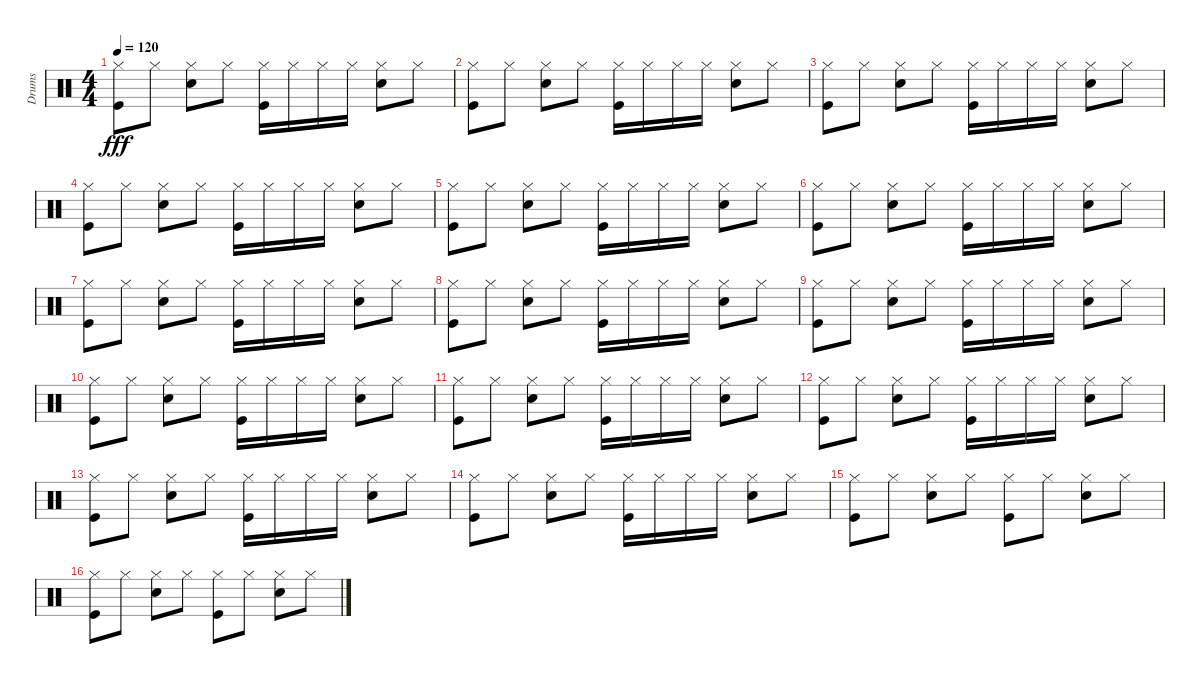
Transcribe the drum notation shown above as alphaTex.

\track ("Drums" "Drums") {instrument percussion}
\staff {score}
\articulation defaults
\ts (4 4)
\tempo 120
\clef neutral
\ks c
("Kick (hit)" "Hi-Hat (closed)").8{dy fff} "Hi-Hat (closed)".8 ("Snare (hit) 2" "Hi-Hat (closed)").8 "Hi-Hat (closed)".8 ("Kick (hit)" "Hi-Hat (closed)").16 "Hi-Hat (closed)".16 "Hi-Hat (closed)".16 "Hi-Hat (closed)".16 ("Snare (hit) 2" "Hi-Hat (closed)").8 "Hi-Hat (closed)".8 |
("Kick (hit)" "Hi-Hat (closed)").8 "Hi-Hat (closed)".8 ("Snare (hit) 2" "Hi-Hat (closed)").8 "Hi-Hat (closed)".8 ("Kick (hit)" "Hi-Hat (closed)").16 "Hi-Hat (closed)".16 "Hi-Hat (closed)".16 "Hi-Hat (closed)".16 ("Snare (hit) 2" "Hi-Hat (closed)").8 "Hi-Hat (closed)".8 |
("Kick (hit)" "Hi-Hat (closed)").8 "Hi-Hat (closed)".8 ("Snare (hit) 2" "Hi-Hat (closed)").8 "Hi-Hat (closed)".8 ("Kick (hit)" "Hi-Hat (closed)").16 "Hi-Hat (closed)".16 "Hi-Hat (closed)".16 "Hi-Hat (closed)".16 ("Snare (hit) 2" "Hi-Hat (closed)").8 "Hi-Hat (closed)".8 |
("Kick (hit)" "Hi-Hat (closed)").8 "Hi-Hat (closed)".8 ("Snare (hit) 2" "Hi-Hat (closed)").8 "Hi-Hat (closed)".8 ("Kick (hit)" "Hi-Hat (closed)").16 "Hi-Hat (closed)".16 "Hi-Hat (closed)".16 "Hi-Hat (closed)".16 ("Snare (hit) 2" "Hi-Hat (closed)").8 "Hi-Hat (closed)".8 |
("Kick (hit)" "Hi-Hat (closed)").8 "Hi-Hat (closed)".8 ("Snare (hit) 2" "Hi-Hat (closed)").8 "Hi-Hat (closed)".8 ("Kick (hit)" "Hi-Hat (closed)").16 "Hi-Hat (closed)".16 "Hi-Hat (closed)".16 "Hi-Hat (closed)".16 ("Snare (hit) 2" "Hi-Hat (closed)").8 "Hi-Hat (closed)".8 |
("Kick (hit)" "Hi-Hat (closed)").8 "Hi-Hat (closed)".8 ("Snare (hit) 2" "Hi-Hat (closed)").8 "Hi-Hat (closed)".8 ("Kick (hit)" "Hi-Hat (closed)").16 "Hi-Hat (closed)".16 "Hi-Hat (closed)".16 "Hi-Hat (closed)".16 ("Snare (hit) 2" "Hi-Hat (closed)").8 "Hi-Hat (closed)".8 |
("Kick (hit)" "Hi-Hat (closed)").8 "Hi-Hat (closed)".8 ("Snare (hit) 2" "Hi-Hat (closed)").8 "Hi-Hat (closed)".8 ("Kick (hit)" "Hi-Hat (closed)").16 "Hi-Hat (closed)".16 "Hi-Hat (closed)".16 "Hi-Hat (closed)".16 ("Snare (hit) 2" "Hi-Hat (closed)").8 "Hi-Hat (closed)".8 |
("Kick (hit)" "Hi-Hat (closed)").8 "Hi-Hat (closed)".8 ("Snare (hit) 2" "Hi-Hat (closed)").8 "Hi-Hat (closed)".8 ("Kick (hit)" "Hi-Hat (closed)").16 "Hi-Hat (closed)".16 "Hi-Hat (closed)".16 "Hi-Hat (closed)".16 ("Snare (hit) 2" "Hi-Hat (closed)").8 "Hi-Hat (closed)".8 |
("Kick (hit)" "Hi-Hat (closed)").8 "Hi-Hat (closed)".8 ("Snare (hit) 2" "Hi-Hat (closed)").8 "Hi-Hat (closed)".8 ("Kick (hit)" "Hi-Hat (closed)").16 "Hi-Hat (closed)".16 "Hi-Hat (closed)".16 "Hi-Hat (closed)".16 ("Snare (hit) 2" "Hi-Hat (closed)").8 "Hi-Hat (closed)".8 |
("Kick (hit)" "Hi-Hat (closed)").8 "Hi-Hat (closed)".8 ("Snare (hit) 2" "Hi-Hat (closed)").8 "Hi-Hat (closed)".8 ("Kick (hit)" "Hi-Hat (closed)").16 "Hi-Hat (closed)".16 "Hi-Hat (closed)".16 "Hi-Hat (closed)".16 ("Snare (hit) 2" "Hi-Hat (closed)").8 "Hi-Hat (closed)".8 |
("Kick (hit)" "Hi-Hat (closed)").8 "Hi-Hat (closed)".8 ("Snare (hit) 2" "Hi-Hat (closed)").8 "Hi-Hat (closed)".8 ("Kick (hit)" "Hi-Hat (closed)").16 "Hi-Hat (closed)".16 "Hi-Hat (closed)".16 "Hi-Hat (closed)".16 ("Snare (hit) 2" "Hi-Hat (closed)").8 "Hi-Hat (closed)".8 |
("Kick (hit)" "Hi-Hat (closed)").8 "Hi-Hat (closed)".8 ("Snare (hit) 2" "Hi-Hat (closed)").8 "Hi-Hat (closed)".8 ("Kick (hit)" "Hi-Hat (closed)").16 "Hi-Hat (closed)".16 "Hi-Hat (closed)".16 "Hi-Hat (closed)".16 ("Snare (hit) 2" "Hi-Hat (closed)").8 "Hi-Hat (closed)".8 |
("Kick (hit)" "Hi-Hat (closed)").8 "Hi-Hat (closed)".8 ("Snare (hit) 2" "Hi-Hat (closed)").8 "Hi-Hat (closed)".8 ("Kick (hit)" "Hi-Hat (closed)").16 "Hi-Hat (closed)".16 "Hi-Hat (closed)".16 "Hi-Hat (closed)".16 ("Snare (hit) 2" "Hi-Hat (closed)").8 "Hi-Hat (closed)".8 |
("Kick (hit)" "Hi-Hat (closed)").8 "Hi-Hat (closed)".8 ("Snare (hit) 2" "Hi-Hat (closed)").8 "Hi-Hat (closed)".8 ("Kick (hit)" "Hi-Hat (closed)").16 "Hi-Hat (closed)".16 "Hi-Hat (closed)".16 "Hi-Hat (closed)".16 ("Snare (hit) 2" "Hi-Hat (closed)").8 "Hi-Hat (closed)".8 |
("Kick (hit)" "Hi-Hat (closed)").8 "Hi-Hat (closed)".8 ("Snare (hit) 2" "Hi-Hat (closed)").8 "Hi-Hat (closed)".8 ("Kick (hit)" "Hi-Hat (closed)").8 "Hi-Hat (closed)".8 ("Snare (hit) 2" "Hi-Hat (closed)").8 "Hi-Hat (closed)".8 |
("Kick (hit)" "Hi-Hat (closed)").8 "Hi-Hat (closed)".8 ("Snare (hit) 2" "Hi-Hat (closed)").8 "Hi-Hat (closed)".8 ("Kick (hit)" "Hi-Hat (closed)").8 "Hi-Hat (closed)".8 ("Snare (hit) 2" "Hi-Hat (closed)").8 "Hi-Hat (closed)".8
